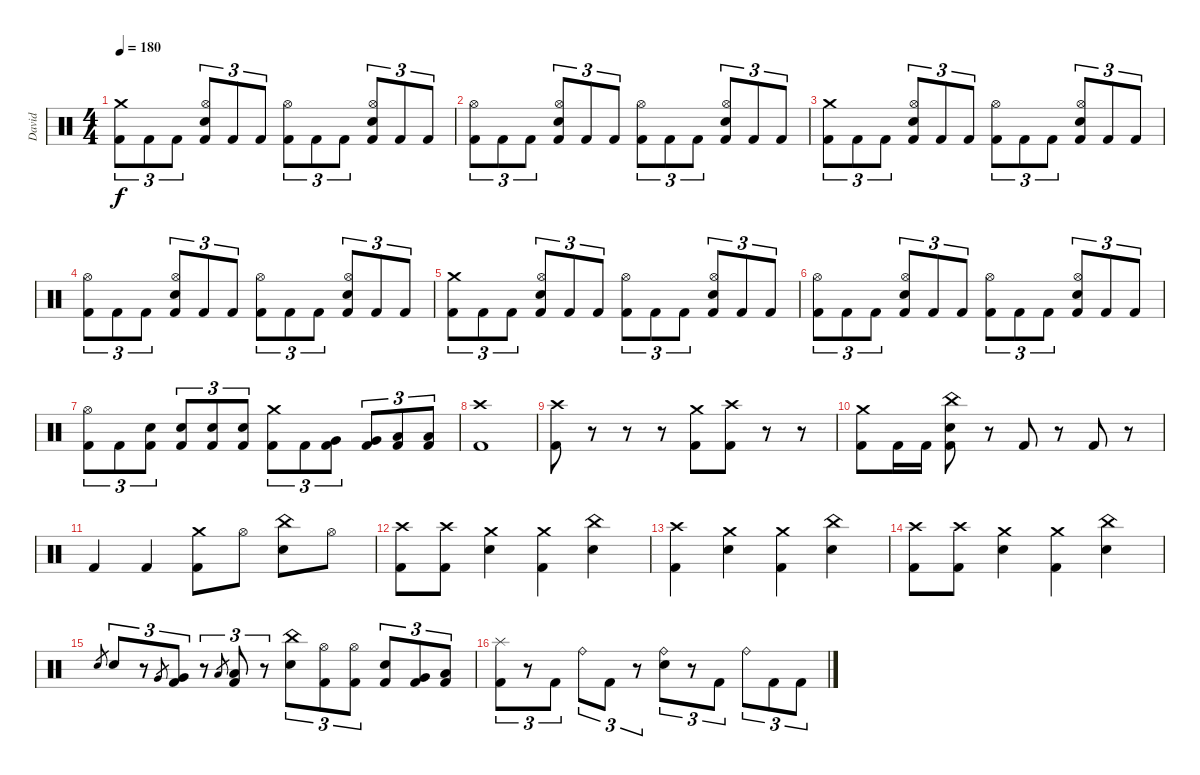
\track ("David" "David") {instrument percussion}
\staff {score}
\articulation defaults
\ts (4 4)
\tempo 180
\clef neutral
\ks c
("Crash medium (hit)" "Kick (hit) 2").8{tu (3 2) dy f} "Kick (hit) 2".8{tu (3 2)} "Kick (hit) 2".8{tu (3 2)} ("Hi-Hat (open)" "Electric Snare (hit)" "Kick (hit) 2").8{tu (3 2)} "Kick (hit) 2".8{tu (3 2)} "Kick (hit) 2".8{tu (3 2)} ("Hi-Hat (open)" "Kick (hit) 2").8{tu (3 2)} "Kick (hit) 2".8{tu (3 2)} "Kick (hit) 2".8{tu (3 2)} ("Hi-Hat (open)" "Electric Snare (hit)" "Kick (hit) 2").8{tu (3 2)} "Kick (hit) 2".8{tu (3 2)} "Kick (hit) 2".8{tu (3 2)} |
("Hi-Hat (open)" "Kick (hit) 2").8{tu (3 2)} "Kick (hit) 2".8{tu (3 2)} "Kick (hit) 2".8{tu (3 2)} ("Hi-Hat (open)" "Electric Snare (hit)" "Kick (hit) 2").8{tu (3 2)} "Kick (hit) 2".8{tu (3 2)} "Kick (hit) 2".8{tu (3 2)} ("Hi-Hat (open)" "Kick (hit) 2").8{tu (3 2)} "Kick (hit) 2".8{tu (3 2)} "Kick (hit) 2".8{tu (3 2)} ("Hi-Hat (open)" "Electric Snare (hit)" "Kick (hit) 2").8{tu (3 2)} "Kick (hit) 2".8{tu (3 2)} "Kick (hit) 2".8{tu (3 2)} |
("Crash medium (hit)" "Kick (hit) 2").8{tu (3 2)} "Kick (hit) 2".8{tu (3 2)} "Kick (hit) 2".8{tu (3 2)} ("Hi-Hat (open)" "Electric Snare (hit)" "Kick (hit) 2").8{tu (3 2)} "Kick (hit) 2".8{tu (3 2)} "Kick (hit) 2".8{tu (3 2)} ("Hi-Hat (open)" "Kick (hit) 2").8{tu (3 2)} "Kick (hit) 2".8{tu (3 2)} "Kick (hit) 2".8{tu (3 2)} ("Hi-Hat (open)" "Electric Snare (hit)" "Kick (hit) 2").8{tu (3 2)} "Kick (hit) 2".8{tu (3 2)} "Kick (hit) 2".8{tu (3 2)} |
("Hi-Hat (open)" "Kick (hit) 2").8{tu (3 2)} "Kick (hit) 2".8{tu (3 2)} "Kick (hit) 2".8{tu (3 2)} ("Hi-Hat (open)" "Electric Snare (hit)" "Kick (hit) 2").8{tu (3 2)} "Kick (hit) 2".8{tu (3 2)} "Kick (hit) 2".8{tu (3 2)} ("Hi-Hat (open)" "Kick (hit) 2").8{tu (3 2)} "Kick (hit) 2".8{tu (3 2)} "Kick (hit) 2".8{tu (3 2)} ("Hi-Hat (open)" "Electric Snare (hit)" "Kick (hit) 2").8{tu (3 2)} "Kick (hit) 2".8{tu (3 2)} "Kick (hit) 2".8{tu (3 2)} |
("Crash medium (hit)" "Kick (hit) 2").8{tu (3 2)} "Kick (hit) 2".8{tu (3 2)} "Kick (hit) 2".8{tu (3 2)} ("Hi-Hat (open)" "Electric Snare (hit)" "Kick (hit) 2").8{tu (3 2)} "Kick (hit) 2".8{tu (3 2)} "Kick (hit) 2".8{tu (3 2)} ("Hi-Hat (open)" "Kick (hit) 2").8{tu (3 2)} "Kick (hit) 2".8{tu (3 2)} "Kick (hit) 2".8{tu (3 2)} ("Hi-Hat (open)" "Electric Snare (hit)" "Kick (hit) 2").8{tu (3 2)} "Kick (hit) 2".8{tu (3 2)} "Kick (hit) 2".8{tu (3 2)} |
("Hi-Hat (open)" "Kick (hit) 2").8{tu (3 2)} "Kick (hit) 2".8{tu (3 2)} "Kick (hit) 2".8{tu (3 2)} ("Hi-Hat (open)" "Electric Snare (hit)" "Kick (hit) 2").8{tu (3 2)} "Kick (hit) 2".8{tu (3 2)} "Kick (hit) 2".8{tu (3 2)} ("Hi-Hat (open)" "Kick (hit) 2").8{tu (3 2)} "Kick (hit) 2".8{tu (3 2)} "Kick (hit) 2".8{tu (3 2)} ("Hi-Hat (open)" "Electric Snare (hit)" "Kick (hit) 2").8{tu (3 2)} "Kick (hit) 2".8{tu (3 2)} "Kick (hit) 2".8{tu (3 2)} |
("Hi-Hat (open)" "Kick (hit) 2").8{tu (3 2)} "Kick (hit) 2".8{tu (3 2)} ("Electric Snare (hit)" "Kick (hit) 2").8{tu (3 2)} ("Electric Snare (hit)" "Kick (hit) 2").8{tu (3 2)} ("Electric Snare (hit)" "Kick (hit) 2").8{tu (3 2)} ("Electric Snare (hit)" "Kick (hit) 2").8{tu (3 2)} ("Crash medium (hit)" "Kick (hit) 2").8{tu (3 2)} "Kick (hit) 2".8{tu (3 2)} ("Very Low Tom (hit)" "Kick (hit) 2").8{tu (3 2)} ("Very Low Tom (hit)" "Kick (hit) 2").8{tu (3 2)} ("Low Floor Tom (hit)" "Kick (hit) 2").8{tu (3 2)} ("Low Floor Tom (hit)" "Kick (hit) 2").8{tu (3 2)} |
("Crash high (hit)" "Kick (hit) 2").1 |
("Crash high (hit)" "Kick (hit) 2").8 r.8 r.8 r.8 ("Crash medium (hit)" "Kick (hit) 2").8 ("Crash high (hit)" "Kick (hit) 2").8 r.8 r.8 |
("Crash medium (hit)" "Kick (hit) 2").8 "Kick (hit) 2".16 "Kick (hit) 2".16 ("China (hit)" "Electric Snare (hit)" "Kick (hit) 2").8 r.8 "Kick (hit) 2".8 r.8 "Kick (hit) 2".8 r.8 |
"Kick (hit) 2".4 "Kick (hit) 2".4 ("Crash medium (hit)" "Kick (hit) 2").8 "Hi-Hat (open)".8 ("China (hit)" "Electric Snare (hit)").8 "Hi-Hat (open)".8 |
("Crash high (hit)" "Kick (hit) 2").8 ("Crash high (hit)" "Kick (hit) 2").8 ("Crash medium (hit)" "Electric Snare (hit)").4 ("Crash medium (hit)" "Kick (hit) 2").4 ("China (hit)" "Electric Snare (hit)").4 |
("Crash high (hit)" "Kick (hit) 2").4 ("Crash medium (hit)" "Electric Snare (hit)").4 ("Crash medium (hit)" "Kick (hit) 2").4 ("China (hit)" "Electric Snare (hit)").4 |
("Crash high (hit)" "Kick (hit) 2").8 ("Crash high (hit)" "Kick (hit) 2").8 ("Crash medium (hit)" "Electric Snare (hit)").4 ("Crash medium (hit)" "Kick (hit) 2").4 ("China (hit)" "Electric Snare (hit)").4 |
"Electric Snare (hit)".8{gr} "Electric Snare (hit)".8{tu (3 2)} r.8{tu (3 2)} "Very Low Tom (hit)".8{gr} ("Very Low Tom (hit)" "Kick (hit) 2").8{tu (3 2)} r.8{tu (3 2)} "Low Floor Tom (hit)".8{gr} ("Low Floor Tom (hit)" "Kick (hit) 2").8{tu (3 2)} r.8{tu (3 2)} ("China (hit)" "Electric Snare (hit)").8{tu (3 2)} ("Hi-Hat (open)" "Kick (hit) 2").8{tu (3 2)} ("Hi-Hat (open)" "Kick (hit) 2").8{tu (3 2)} ("Electric Snare (hit)" "Kick (hit) 2").8{tu (3 2)} ("Very Low Tom (hit)" "Kick (hit) 2").8{tu (3 2)} ("Low Floor Tom (hit)" "Kick (hit) 2").8{tu (3 2)} |
("Splash (hit)" "Kick (hit) 2").8{tu (3 2)} r.8{tu (3 2)} "Kick (hit) 2".8{tu (3 2)} "Ride (bell)".8{tu (3 2)} "Kick (hit) 2".8{tu (3 2)} r.8{tu (3 2)} ("Ride (bell)" "Electric Snare (hit)").8{tu (3 2)} r.8{tu (3 2)} "Kick (hit) 2".8{tu (3 2)} "Ride (bell)".8{tu (3 2)} "Kick (hit) 2".8{tu (3 2)} "Kick (hit) 2".8{tu (3 2)}
